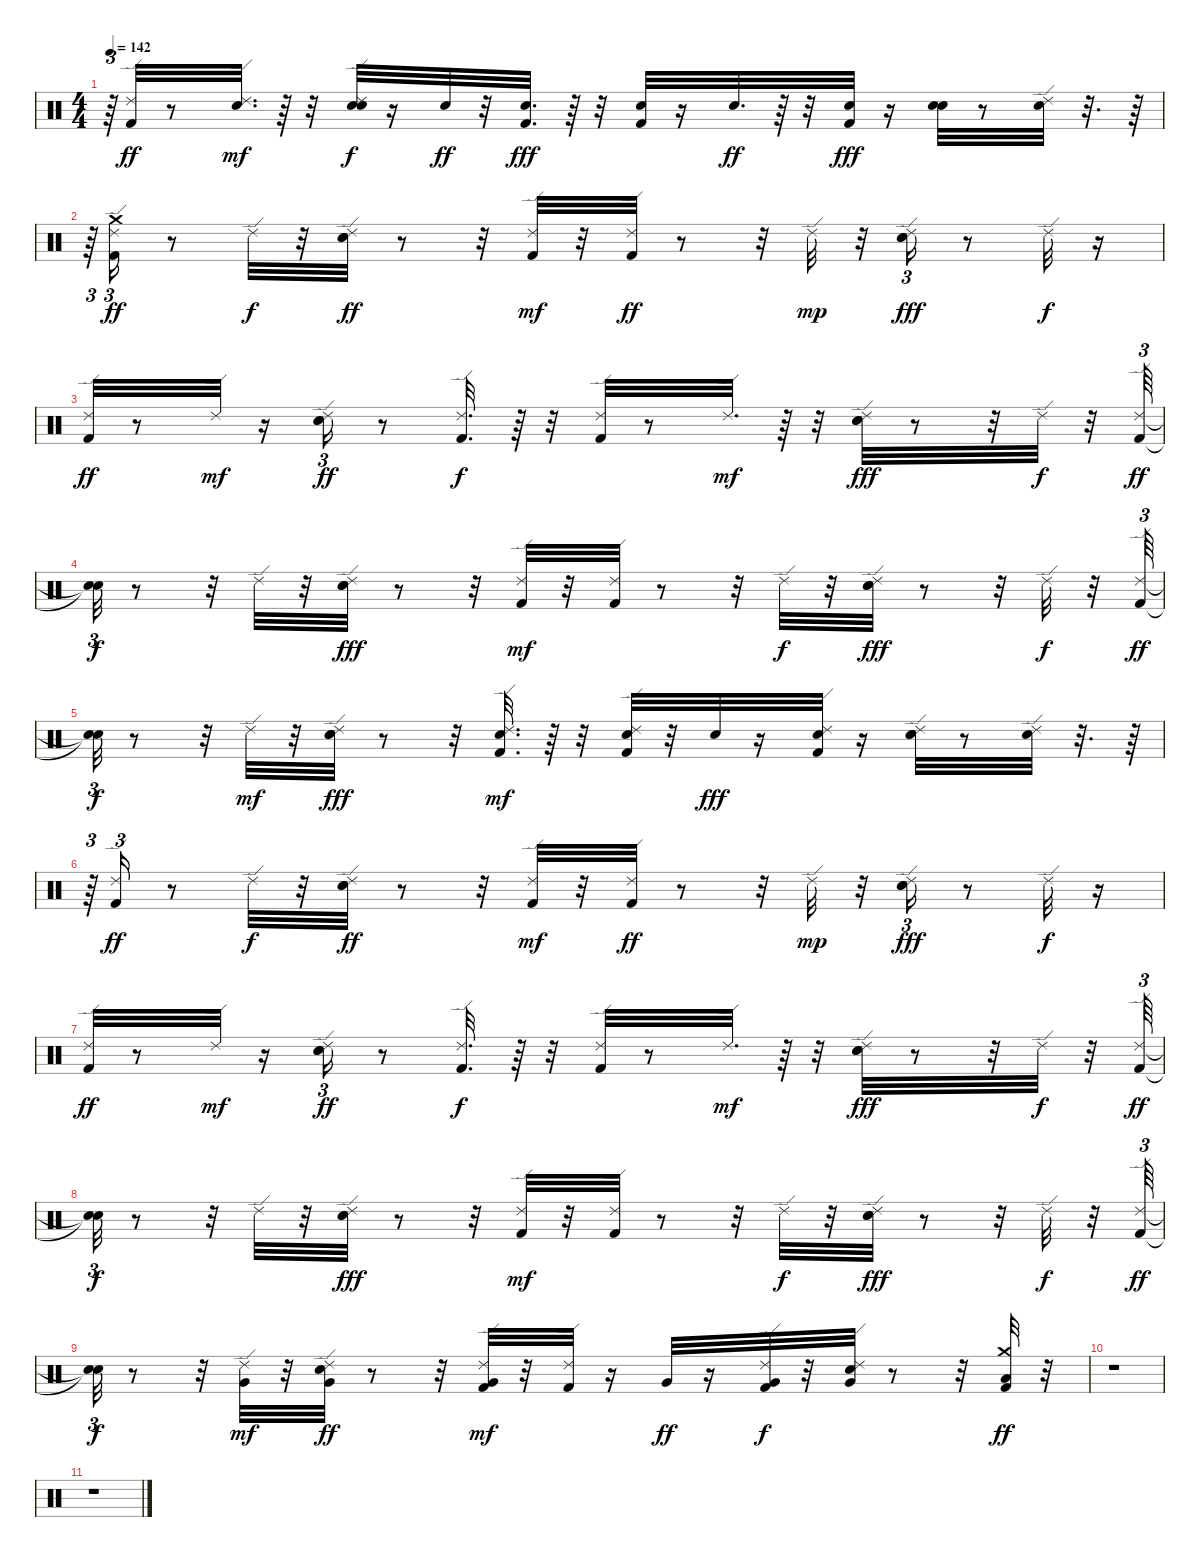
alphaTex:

\track "" {instrument percussion}
\staff {score}
\articulation defaults
\ts (4 4)
\tempo 142
\clef neutral
\ks c
r.64{tu (3 2) dy f} ("Kick (hit) 2" "Ride (edge) 2").32{dy ff} r.8 ("Electric Snare (hit)" "Ride (edge) 2").32{d dy mf} r.64 r.32 ("Electric Snare (hit)" "Hand Clap (hit)" "Ride (edge) 2").32{dy f} r.16 "Electric Snare (hit)".32{dy ff} r.32 ("Kick (hit) 2" "Electric Snare (hit)").32{d dy fff} r.64 r.32 ("Electric Snare (hit)" "Kick (hit) 2").32 r.16 "Electric Snare (hit)".32{d dy ff} r.64 r.32 ("Electric Snare (hit)" "Kick (hit) 2").32{dy fff} r.16 ("Hand Clap (hit)" "Electric Snare (hit)").32 r.8 ("Ride (edge) 2" "Electric Snare (hit)").32 r.32{d} r.64 |
r.64{tu (3 2)} ("Crash medium (hit)" "Ride (edge) 2" "Kick (hit) 2").16{tu (3 2) dy ff} r.8 "Ride (edge) 2".32{dy f} r.32 ("Hand Clap (hit)" "Electric Snare (hit)" "Ride (edge) 2").32{dy ff} r.8 r.32 ("Kick (hit) 2" "Ride (edge) 2").32{dy mf} r.32 ("Kick (hit) 2" "Ride (edge) 2").32{dy ff} r.8 r.32 "Ride (edge) 2".32{dy mp} r.32 ("Hand Clap (hit)" "Electric Snare (hit)" "Ride (edge) 2").16{tu (3 2) dy fff} r.8 "Ride (edge) 2".32{dy f} r.16 |
("Kick (hit) 2" "Ride (edge) 2").32{dy ff} r.8 "Ride (edge) 2".32{dy mf} r.16 ("Hand Clap (hit)" "Electric Snare (hit)" "Ride (edge) 2").16{tu (3 2) dy ff} r.8 ("Kick (hit) 2" "Ride (edge) 2").32{d dy f} r.64 r.32 ("Kick (hit) 2" "Ride (edge) 2").32 r.8 "Ride (edge) 2".32{d dy mf} r.64 r.32 ("Hand Clap (hit)" "Electric Snare (hit)" "Ride (edge) 2").32{dy fff} r.8 r.32 "Ride (edge) 2".32{dy f} r.32 ("Ride (edge) 2" "Kick (hit) 2").64{tu (3 2) dy ff} |
("Snare (hit)"{t} "Snare (hit)"{t}).32{tu (3 2) dy f} r.8 r.32 "Ride (edge) 2".32 r.32 ("Electric Snare (hit)" "Hand Clap (hit)" "Ride (edge) 2").32{dy fff} r.8 r.32 ("Kick (hit) 2" "Ride (edge) 2").32{dy mf} r.32 ("Kick (hit) 2" "Ride (edge) 2").32 r.8 r.32 "Ride (edge) 2".32{dy f} r.32 ("Electric Snare (hit)" "Hand Clap (hit)" "Ride (edge) 2").32{dy fff} r.8 r.32 "Ride (edge) 2".32{dy f} r.32 ("Kick (hit) 2" "Ride (edge) 2").64{tu (3 2) dy ff} |
("Snare (hit)"{t} "Snare (hit)"{t}).32{tu (3 2) dy f} r.8 r.32 "Ride (edge) 2".32{dy mf} r.32 ("Hand Clap (hit)" "Electric Snare (hit)" "Ride (edge) 2").32{dy fff} r.8 r.32 ("Kick (hit) 2" "Electric Snare (hit)" "Ride (edge) 2").32{d dy mf} r.64 r.32 ("Kick (hit) 2" "Electric Snare (hit)" "Ride (edge) 2").32 r.32 "Electric Snare (hit)".32{dy fff} r.16 ("Electric Snare (hit)" "Ride (edge) 2" "Kick (hit) 2").32 r.16 ("Electric Snare (hit)" "Hand Clap (hit)" "Ride (edge) 2").32 r.8 ("Electric Snare (hit)" "Ride (edge) 2").32 r.32{d} r.64 |
r.64{tu (3 2)} ("Ride (edge) 2" "Kick (hit) 2").16{tu (3 2) dy ff} r.8 "Ride (edge) 2".32{dy f} r.32 ("Hand Clap (hit)" "Electric Snare (hit)" "Ride (edge) 2").32{dy ff} r.8 r.32 ("Kick (hit) 2" "Ride (edge) 2").32{dy mf} r.32 ("Kick (hit) 2" "Ride (edge) 2").32{dy ff} r.8 r.32 "Ride (edge) 2".32{dy mp} r.32 ("Hand Clap (hit)" "Electric Snare (hit)" "Ride (edge) 2").16{tu (3 2) dy fff} r.8 "Ride (edge) 2".32{dy f} r.16 |
("Kick (hit) 2" "Ride (edge) 2").32{dy ff} r.8 "Ride (edge) 2".32{dy mf} r.16 ("Hand Clap (hit)" "Electric Snare (hit)" "Ride (edge) 2").16{tu (3 2) dy ff} r.8 ("Kick (hit) 2" "Ride (edge) 2").32{d dy f} r.64 r.32 ("Kick (hit) 2" "Ride (edge) 2").32 r.8 "Ride (edge) 2".32{d dy mf} r.64 r.32 ("Hand Clap (hit)" "Electric Snare (hit)" "Ride (edge) 2").32{dy fff} r.8 r.32 "Ride (edge) 2".32{dy f} r.32 ("Ride (edge) 2" "Kick (hit) 2").64{tu (3 2) dy ff} |
("Snare (hit)"{t} "Snare (hit)"{t}).32{tu (3 2) dy f} r.8 r.32 "Ride (edge) 2".32 r.32 ("Electric Snare (hit)" "Hand Clap (hit)" "Ride (edge) 2").32{dy fff} r.8 r.32 ("Kick (hit) 2" "Ride (edge) 2").32{dy mf} r.32 ("Kick (hit) 2" "Ride (edge) 2").32 r.8 r.32 "Ride (edge) 2".32{dy f} r.32 ("Electric Snare (hit)" "Hand Clap (hit)" "Ride (edge) 2").32{dy fff} r.8 r.32 "Ride (edge) 2".32{dy f} r.32 ("Kick (hit) 2" "Ride (edge) 2").64{tu (3 2) dy ff} |
("Snare (hit)"{t} "Snare (hit)"{t}).32{tu (3 2) dy f} r.8 r.32 ("Ride (edge) 2" "Very Low Tom (hit)").32{dy mf} r.32 ("Hand Clap (hit)" "Ride (edge) 2" "Very Low Tom (hit)").32{dy ff} r.8 r.32 ("Very Low Tom (hit)" "Kick (hit) 2" "Ride (edge) 2").32{dy mf} r.32 ("Kick (hit) 2" "Ride (edge) 2").32 r.16 "Very Low Tom (hit)".32{dy ff} r.16 ("Ride (edge) 2" "Very Low Tom (hit)" "Kick (hit) 2").32{dy f} r.32 ("Very Low Tom (hit)" "Hand Clap (hit)" "Ride (edge) 2").32 r.8 r.32 ("Crash medium (hit)" "Low Floor Tom (hit)" "Kick (hit) 2").32{dy ff} r.32 |
r.1 |
r.1
